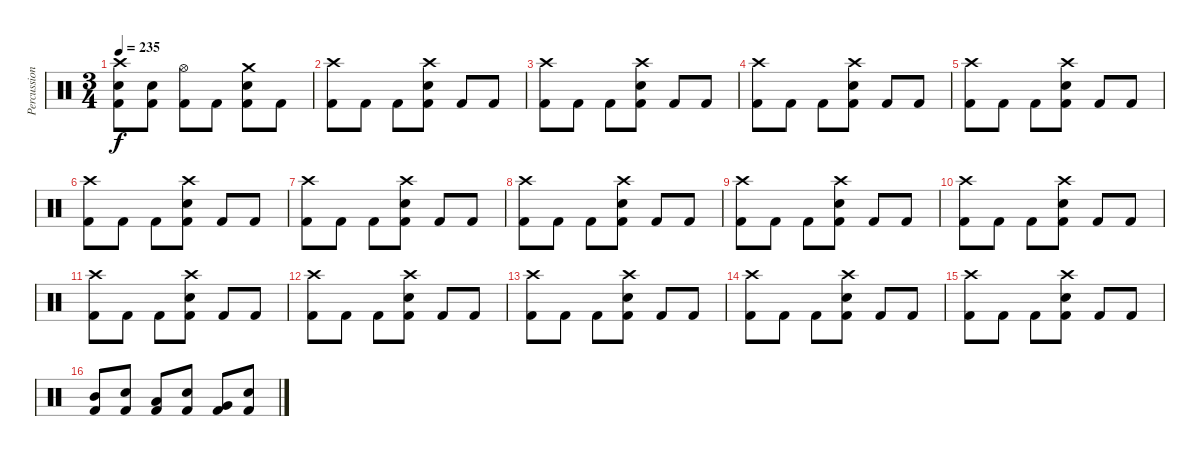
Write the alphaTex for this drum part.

\track ("Percussion" "Percussion") {instrument percussion}
\staff {score}
\articulation defaults
\ts (3 4)
\tempo 235
\clef neutral
\ks c
("Crash high (hit)" "Electric Snare (hit)" "Kick (hit) 2").8{dy f} ("Electric Snare (hit)" "Kick (hit) 2").8 ("Hi-Hat (open)" "Kick (hit) 2").8 "Kick (hit) 2".8 ("Crash medium (hit)" "Electric Snare (hit)" "Kick (hit) 2").8 "Kick (hit) 2".8 |
("Crash high (hit)" "Kick (hit) 2").8 "Kick (hit) 2".8 "Kick (hit) 2".8 ("Crash high (hit)" "Electric Snare (hit)" "Kick (hit) 2").8 "Kick (hit) 2".8 "Kick (hit) 2".8 |
("Crash high (hit)" "Kick (hit) 2").8 "Kick (hit) 2".8 "Kick (hit) 2".8 ("Crash high (hit)" "Electric Snare (hit)" "Kick (hit) 2").8 "Kick (hit) 2".8 "Kick (hit) 2".8 |
("Crash high (hit)" "Kick (hit) 2").8 "Kick (hit) 2".8 "Kick (hit) 2".8 ("Crash high (hit)" "Electric Snare (hit)" "Kick (hit) 2").8 "Kick (hit) 2".8 "Kick (hit) 2".8 |
("Crash high (hit)" "Kick (hit) 2").8 "Kick (hit) 2".8 "Kick (hit) 2".8 ("Crash high (hit)" "Electric Snare (hit)" "Kick (hit) 2").8 "Kick (hit) 2".8 "Kick (hit) 2".8 |
("Crash high (hit)" "Kick (hit) 2").8 "Kick (hit) 2".8 "Kick (hit) 2".8 ("Crash high (hit)" "Electric Snare (hit)" "Kick (hit) 2").8 "Kick (hit) 2".8 "Kick (hit) 2".8 |
("Crash high (hit)" "Kick (hit) 2").8 "Kick (hit) 2".8 "Kick (hit) 2".8 ("Crash high (hit)" "Electric Snare (hit)" "Kick (hit) 2").8 "Kick (hit) 2".8 "Kick (hit) 2".8 |
("Crash high (hit)" "Kick (hit) 2").8 "Kick (hit) 2".8 "Kick (hit) 2".8 ("Crash high (hit)" "Electric Snare (hit)" "Kick (hit) 2").8 "Kick (hit) 2".8 "Kick (hit) 2".8 |
("Crash high (hit)" "Kick (hit) 2").8 "Kick (hit) 2".8 "Kick (hit) 2".8 ("Crash high (hit)" "Electric Snare (hit)" "Kick (hit) 2").8 "Kick (hit) 2".8 "Kick (hit) 2".8 |
("Crash high (hit)" "Kick (hit) 2").8 "Kick (hit) 2".8 "Kick (hit) 2".8 ("Crash high (hit)" "Electric Snare (hit)" "Kick (hit) 2").8 "Kick (hit) 2".8 "Kick (hit) 2".8 |
("Crash high (hit)" "Kick (hit) 2").8 "Kick (hit) 2".8 "Kick (hit) 2".8 ("Crash high (hit)" "Electric Snare (hit)" "Kick (hit) 2").8 "Kick (hit) 2".8 "Kick (hit) 2".8 |
("Crash high (hit)" "Kick (hit) 2").8 "Kick (hit) 2".8 "Kick (hit) 2".8 ("Crash high (hit)" "Electric Snare (hit)" "Kick (hit) 2").8 "Kick (hit) 2".8 "Kick (hit) 2".8 |
("Crash high (hit)" "Kick (hit) 2").8 "Kick (hit) 2".8 "Kick (hit) 2".8 ("Crash high (hit)" "Electric Snare (hit)" "Kick (hit) 2").8 "Kick (hit) 2".8 "Kick (hit) 2".8 |
("Crash high (hit)" "Kick (hit) 2").8 "Kick (hit) 2".8 "Kick (hit) 2".8 ("Crash high (hit)" "Electric Snare (hit)" "Kick (hit) 2").8 "Kick (hit) 2".8 "Kick (hit) 2".8 |
("Crash high (hit)" "Kick (hit) 2").8 "Kick (hit) 2".8 "Kick (hit) 2".8 ("Crash high (hit)" "Electric Snare (hit)" "Kick (hit) 2").8 "Kick (hit) 2".8 "Kick (hit) 2".8 |
("Mid Tom (hit)" "Kick (hit) 2").8 ("Electric Snare (hit)" "Kick (hit) 2").8 ("Low Tom (hit)" "Kick (hit) 2").8 ("Electric Snare (hit)" "Kick (hit) 2").8 ("Very Low Tom (hit)" "Kick (hit) 2").8 ("Electric Snare (hit)" "Kick (hit) 2").8
